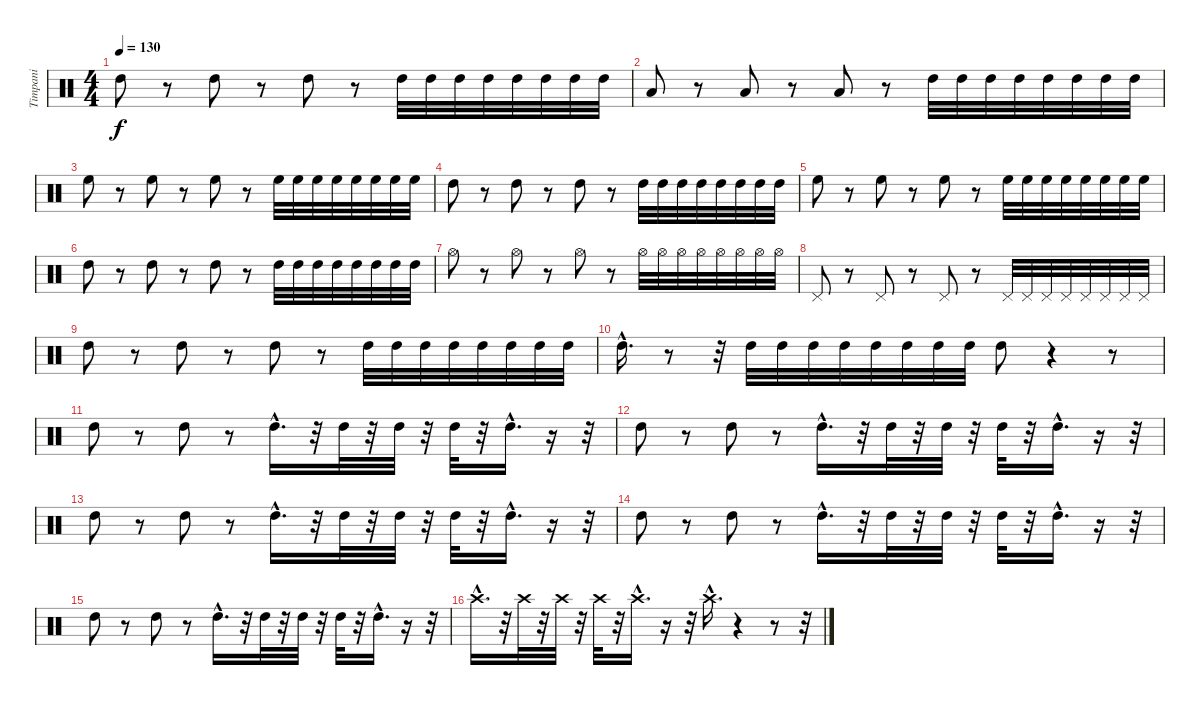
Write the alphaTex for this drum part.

\track ("Timpani" "Timpani") {instrument percussion}
\staff {score}
\articulation defaults
\ts (4 4)
\tempo 130
\clef neutral
\ks c "High Tom (hit)".8{dy f}
r.8 "High Tom (hit)".8 r.8 "High Tom (hit)".8 r.8 "High Tom (hit)".32 "High Tom (hit)".32 "High Tom (hit)".32 "High Tom (hit)".32 "High Tom (hit)".32 "High Tom (hit)".32 "High Tom (hit)".32 "High Tom (hit)".32 |
"Low Tom (hit)".8 r.8 "Low Tom (hit)".8 r.8 "Low Tom (hit)".8 r.8 "High Tom (hit)".32 "High Tom (hit)".32 "High Tom (hit)".32 "High Tom (hit)".32 "High Tom (hit)".32 "High Tom (hit)".32 "High Tom (hit)".32 "High Tom (hit)".32 |
"High Floor Tom (hit)".8 r.8 "High Floor Tom (hit)".8 r.8 "High Floor Tom (hit)".8 r.8 "High Floor Tom (hit)".32 "High Floor Tom (hit)".32 "High Floor Tom (hit)".32 "High Floor Tom (hit)".32 "High Floor Tom (hit)".32 "High Floor Tom (hit)".32 "High Floor Tom (hit)".32 "High Floor Tom (hit)".32 |
"High Tom (hit)".8 r.8 "High Tom (hit)".8 r.8 "High Tom (hit)".8 r.8 "High Tom (hit)".32 "High Tom (hit)".32 "High Tom (hit)".32 "High Tom (hit)".32 "High Tom (hit)".32 "High Tom (hit)".32 "High Tom (hit)".32 "High Tom (hit)".32 |
"High Floor Tom (hit)".8 r.8 "High Floor Tom (hit)".8 r.8 "High Floor Tom (hit)".8 r.8 "High Floor Tom (hit)".32 "High Floor Tom (hit)".32 "High Floor Tom (hit)".32 "High Floor Tom (hit)".32 "High Floor Tom (hit)".32 "High Floor Tom (hit)".32 "High Floor Tom (hit)".32 "High Floor Tom (hit)".32 |
"High Tom (hit)".8 r.8 "High Tom (hit)".8 r.8 "High Tom (hit)".8 r.8 "High Tom (hit)".32 "High Tom (hit)".32 "High Tom (hit)".32 "High Tom (hit)".32 "High Tom (hit)".32 "High Tom (hit)".32 "High Tom (hit)".32 "High Tom (hit)".32 |
"Hi-Hat (open)".8 r.8 "Hi-Hat (open)".8 r.8 "Hi-Hat (open)".8 r.8 "Hi-Hat (open)".32 "Hi-Hat (open)".32 "Hi-Hat (open)".32 "Hi-Hat (open)".32 "Hi-Hat (open)".32 "Hi-Hat (open)".32 "Hi-Hat (open)".32 "Hi-Hat (open)".32 |
"Pedal Hi-Hat (hit)".8 r.8 "Pedal Hi-Hat (hit)".8 r.8 "Pedal Hi-Hat (hit)".8 r.8 "Pedal Hi-Hat (hit)".32 "Pedal Hi-Hat (hit)".32 "Pedal Hi-Hat (hit)".32 "Pedal Hi-Hat (hit)".32 "Pedal Hi-Hat (hit)".32 "Pedal Hi-Hat (hit)".32 "Pedal Hi-Hat (hit)".32 "Pedal Hi-Hat (hit)".32 |
"High Tom (hit)".8 r.8 "High Tom (hit)".8 r.8 "High Tom (hit)".8 r.8 "High Tom (hit)".32 "High Tom (hit)".32 "High Tom (hit)".32 "High Tom (hit)".32 "High Tom (hit)".32 "High Tom (hit)".32 "High Tom (hit)".32 "High Tom (hit)".32 |
"High Tom (hit)"{hac}.16{d} r.8 r.32 "High Tom (hit)".32 "High Tom (hit)".32 "High Tom (hit)".32 "High Tom (hit)".32 "High Tom (hit)".32 "High Tom (hit)".32 "High Tom (hit)".32 "High Tom (hit)".32 "High Tom (hit)".8 r.4 r.8 |
"High Tom (hit)".8 r.8 "High Tom (hit)".8 r.8 "High Tom (hit)"{hac}.16{d} r.32 "High Tom (hit)".32 r.32 "High Tom (hit)".32 r.32 "High Tom (hit)".32 r.32 "High Tom (hit)"{hac}.16{d} r.16 r.32 |
"High Tom (hit)".8 r.8 "High Tom (hit)".8 r.8 "High Tom (hit)"{hac}.16{d} r.32 "High Tom (hit)".32 r.32 "High Tom (hit)".32 r.32 "High Tom (hit)".32 r.32 "High Tom (hit)"{hac}.16{d} r.16 r.32 |
"High Tom (hit)".8 r.8 "High Tom (hit)".8 r.8 "High Tom (hit)"{hac}.16{d} r.32 "High Tom (hit)".32 r.32 "High Tom (hit)".32 r.32 "High Tom (hit)".32 r.32 "High Tom (hit)"{hac}.16{d} r.16 r.32 |
"High Tom (hit)".8 r.8 "High Tom (hit)".8 r.8 "High Tom (hit)"{hac}.16{d} r.32 "High Tom (hit)".32 r.32 "High Tom (hit)".32 r.32 "High Tom (hit)".32 r.32 "High Tom (hit)"{hac}.16{d} r.16 r.32 |
"High Tom (hit)".8 r.8 "High Tom (hit)".8 r.8 "High Tom (hit)"{hac}.16{d} r.32 "High Tom (hit)".32 r.32 "High Tom (hit)".32 r.32 "High Tom (hit)".32 r.32 "High Tom (hit)"{hac}.16{d} r.16 r.32 |
"Crash high (hit)"{hac}.16{d} r.32 "Crash high (hit)".32 r.32 "Crash high (hit)".32 r.32 "Crash high (hit)".32 r.32 "Crash high (hit)"{hac}.16{d} r.16 r.32 "Crash high (hit)"{hac}.16{d} r.4 r.8 r.32
